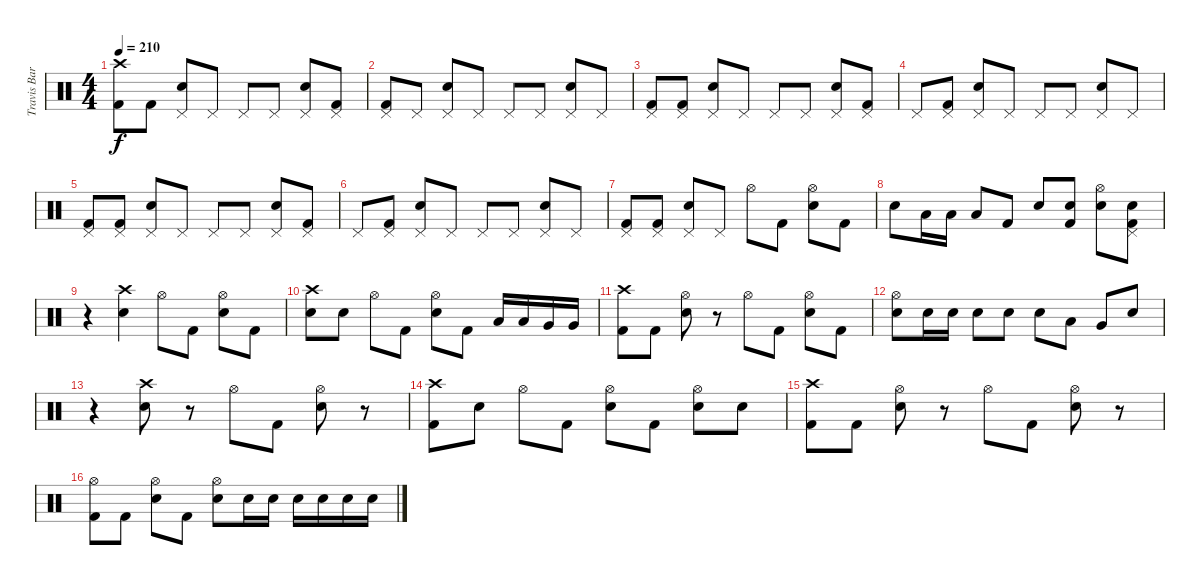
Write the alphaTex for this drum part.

\track ("Travis Barker" "Travis Bar") {instrument percussion}
\staff {score}
\articulation defaults
\ts (4 4)
\tempo 210
\clef neutral
\ks c
("Crash high (hit)" "Kick (hit) 2").8{dy f} "Kick (hit) 2".8 ("Pedal Hi-Hat (hit)" "Electric Snare (hit)").8 "Pedal Hi-Hat (hit)".8 "Pedal Hi-Hat (hit)".8 "Pedal Hi-Hat (hit)".8 ("Pedal Hi-Hat (hit)" "Electric Snare (hit)").8 ("Pedal Hi-Hat (hit)" "Kick (hit) 2").8 |
("Pedal Hi-Hat (hit)" "Kick (hit) 2").8 "Pedal Hi-Hat (hit)".8 ("Pedal Hi-Hat (hit)" "Electric Snare (hit)").8 "Pedal Hi-Hat (hit)".8 "Pedal Hi-Hat (hit)".8 "Pedal Hi-Hat (hit)".8 ("Pedal Hi-Hat (hit)" "Electric Snare (hit)").8 "Pedal Hi-Hat (hit)".8 |
("Pedal Hi-Hat (hit)" "Kick (hit) 2").8 ("Pedal Hi-Hat (hit)" "Kick (hit) 2").8 ("Pedal Hi-Hat (hit)" "Electric Snare (hit)").8 "Pedal Hi-Hat (hit)".8 "Pedal Hi-Hat (hit)".8 "Pedal Hi-Hat (hit)".8 ("Pedal Hi-Hat (hit)" "Electric Snare (hit)").8 ("Pedal Hi-Hat (hit)" "Kick (hit) 2").8 |
"Pedal Hi-Hat (hit)".8 ("Pedal Hi-Hat (hit)" "Kick (hit) 2").8 ("Pedal Hi-Hat (hit)" "Electric Snare (hit)").8 "Pedal Hi-Hat (hit)".8 "Pedal Hi-Hat (hit)".8 "Pedal Hi-Hat (hit)".8 ("Pedal Hi-Hat (hit)" "Electric Snare (hit)").8 "Pedal Hi-Hat (hit)".8 |
("Pedal Hi-Hat (hit)" "Kick (hit) 2").8 ("Pedal Hi-Hat (hit)" "Kick (hit) 2").8 ("Pedal Hi-Hat (hit)" "Electric Snare (hit)").8 "Pedal Hi-Hat (hit)".8 "Pedal Hi-Hat (hit)".8 "Pedal Hi-Hat (hit)".8 ("Pedal Hi-Hat (hit)" "Electric Snare (hit)").8 ("Pedal Hi-Hat (hit)" "Kick (hit) 2").8 |
"Pedal Hi-Hat (hit)".8 ("Pedal Hi-Hat (hit)" "Kick (hit) 2").8 ("Pedal Hi-Hat (hit)" "Electric Snare (hit)").8 "Pedal Hi-Hat (hit)".8 "Pedal Hi-Hat (hit)".8 "Pedal Hi-Hat (hit)".8 ("Pedal Hi-Hat (hit)" "Electric Snare (hit)").8 "Pedal Hi-Hat (hit)".8 |
("Pedal Hi-Hat (hit)" "Kick (hit) 2").8 ("Pedal Hi-Hat (hit)" "Kick (hit) 2").8 ("Pedal Hi-Hat (hit)" "Electric Snare (hit)").8 "Pedal Hi-Hat (hit)".8 "Hi-Hat (open)".8 "Kick (hit) 2".8 ("Hi-Hat (open)" "Electric Snare (hit)").8 "Kick (hit) 2".8 |
"Electric Snare (hit)".8 "Low Tom (hit)".16 "Low Tom (hit)".16 "Low Tom (hit)".8 "Kick (hit) 2".8 "Electric Snare (hit)".8 ("Snare (hit)"{x} "Kick (hit) 2").8 ("Hi-Hat (open)" "Electric Snare (hit)").8 ("Snare (hit)"{x} "Pedal Hi-Hat (hit)" "Kick (hit) 2").8 |
r.4 ("Crash high (hit)" "Electric Snare (hit)").4 "Hi-Hat (open)".8 "Kick (hit) 2".8 ("Hi-Hat (open)" "Electric Snare (hit)").8 "Kick (hit) 2".8 |
("Crash high (hit)" "Electric Snare (hit)").8 "Electric Snare (hit)".8 "Hi-Hat (open)".8 "Kick (hit) 2".8 ("Hi-Hat (open)" "Electric Snare (hit)").8 "Kick (hit) 2".8 "Low Tom (hit)".16 "Low Tom (hit)".16 "Very Low Tom (hit)".16 "Very Low Tom (hit)".16 |
("Crash high (hit)" "Kick (hit) 2").8 "Kick (hit) 2".8 ("Hi-Hat (open)" "Electric Snare (hit)").8 r.8 "Hi-Hat (open)".8 "Kick (hit) 2".8 ("Hi-Hat (open)" "Electric Snare (hit)").8 "Kick (hit) 2".8 |
("Hi-Hat (open)" "Electric Snare (hit)").8 "Electric Snare (hit)".16 "Electric Snare (hit)".16 "Electric Snare (hit)".8 "Electric Snare (hit)".8 "Electric Snare (hit)".8 "Low Tom (hit)".8 "Very Low Tom (hit)".8 "Electric Snare (hit)".8 |
r.4 ("Crash high (hit)" "Electric Snare (hit)").8 r.8 "Hi-Hat (open)".8 "Kick (hit) 2".8 ("Hi-Hat (open)" "Electric Snare (hit)").8 r.8 |
("Crash high (hit)" "Kick (hit) 2").8 "Electric Snare (hit)".8 "Hi-Hat (open)".8 "Kick (hit) 2".8 ("Hi-Hat (open)" "Electric Snare (hit)").8 "Kick (hit) 2".8 ("Hi-Hat (open)" "Electric Snare (hit)").8 "Electric Snare (hit)".8 |
("Crash high (hit)" "Kick (hit) 2").8 "Kick (hit) 2".8 ("Hi-Hat (open)" "Electric Snare (hit)").8 r.8 "Hi-Hat (open)".8 "Kick (hit) 2".8 ("Hi-Hat (open)" "Electric Snare (hit)").8 r.8 |
("Hi-Hat (open)" "Kick (hit) 2").8 "Kick (hit) 2".8 ("Hi-Hat (open)" "Electric Snare (hit)").8 "Kick (hit) 2".8 ("Hi-Hat (open)" "Electric Snare (hit)").8 "Electric Snare (hit)".16 "Electric Snare (hit)".16 "Electric Snare (hit)".16 "Electric Snare (hit)".16 "Electric Snare (hit)".16 "Electric Snare (hit)".16
